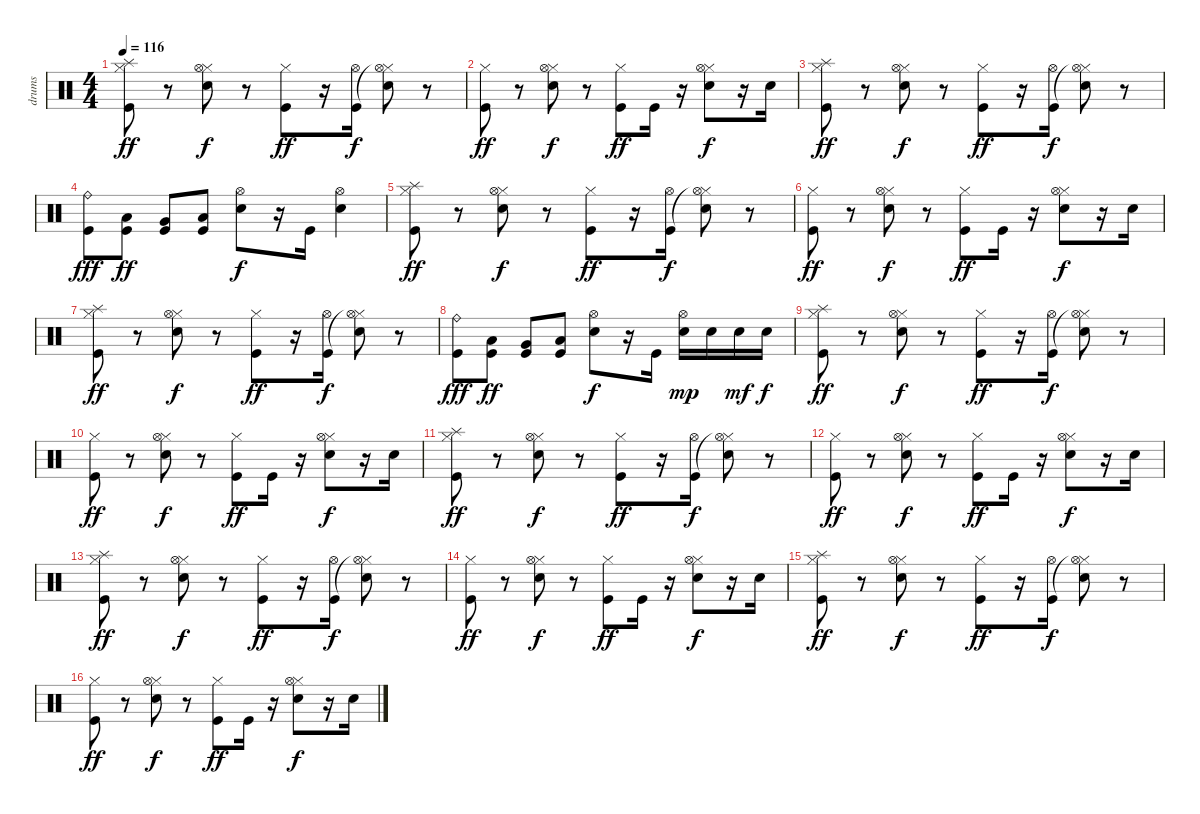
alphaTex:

\track ("drums" "drums") {instrument percussion}
\staff {score}
\articulation defaults
\ts (4 4)
\tempo 116
\clef neutral
\ks c
("Hi-Hat (closed)" "Splash (hit)" "Kick (hit)").8{dy ff} r.8 ("Hi-Hat (closed)" "Hi-Hat (open)" "Electric Snare (hit)").8{dy f} r.8 ("Hi-Hat (closed)" "Kick (hit)").8{dy ff} r.16 ("Hi-Hat (open)" "Kick (hit)").16{dy f} ("Hi-Hat (closed)" "Hi-Hat (open)"{t} "Electric Snare (hit)").8 r.8 |
("Hi-Hat (closed)" "Kick (hit)").8{dy ff} r.8 ("Hi-Hat (closed)" "Hi-Hat (open)" "Electric Snare (hit)").8{dy f} r.8 ("Hi-Hat (closed)" "Kick (hit)").8{dy ff} "Kick (hit)".16 r.16 ("Hi-Hat (closed)" "Hi-Hat (open)" "Electric Snare (hit)").8{dy f} r.16 "Electric Snare (hit)".16 |
("Hi-Hat (closed)" "Splash (hit)" "Kick (hit)").8{dy ff} r.8 ("Hi-Hat (closed)" "Hi-Hat (open)" "Electric Snare (hit)").8{dy f} r.8 ("Hi-Hat (closed)" "Kick (hit)").8{dy ff} r.16 ("Hi-Hat (open)" "Kick (hit)").16{dy f} ("Hi-Hat (closed)" "Hi-Hat (open)"{t} "Electric Snare (hit)").8 r.8 |
("Ride (bell)" "Kick (hit)").8{dy fff} ("Low Tom (hit)" "Kick (hit)").8{dy ff} ("Very Low Tom (hit)" "Kick (hit)").8 ("Low Floor Tom (hit)" "Kick (hit)").8 ("Hi-Hat (open)" "Electric Snare (hit)").8{dy f} r.16 "Kick (hit)".16 ("Hi-Hat (open)" "Electric Snare (hit)").4 |
("Hi-Hat (closed)" "Splash (hit)" "Kick (hit)").8{dy ff} r.8 ("Hi-Hat (closed)" "Hi-Hat (open)" "Electric Snare (hit)").8{dy f} r.8 ("Hi-Hat (closed)" "Kick (hit)").8{dy ff} r.16 ("Hi-Hat (open)" "Kick (hit)").16{dy f} ("Hi-Hat (closed)" "Hi-Hat (open)"{t} "Electric Snare (hit)").8 r.8 |
("Hi-Hat (closed)" "Kick (hit)").8{dy ff} r.8 ("Hi-Hat (closed)" "Hi-Hat (open)" "Electric Snare (hit)").8{dy f} r.8 ("Hi-Hat (closed)" "Kick (hit)").8{dy ff} "Kick (hit)".16 r.16 ("Hi-Hat (closed)" "Hi-Hat (open)" "Electric Snare (hit)").8{dy f} r.16 "Electric Snare (hit)".16 |
("Hi-Hat (closed)" "Splash (hit)" "Kick (hit)").8{dy ff} r.8 ("Hi-Hat (closed)" "Hi-Hat (open)" "Electric Snare (hit)").8{dy f} r.8 ("Hi-Hat (closed)" "Kick (hit)").8{dy ff} r.16 ("Hi-Hat (open)" "Kick (hit)").16{dy f} ("Hi-Hat (closed)" "Hi-Hat (open)"{t} "Electric Snare (hit)").8 r.8 |
("Ride (bell)" "Kick (hit)").8{dy fff} ("Low Tom (hit)" "Kick (hit)").8{dy ff} ("Very Low Tom (hit)" "Kick (hit)").8 ("Low Floor Tom (hit)" "Kick (hit)").8 ("Hi-Hat (open)" "Electric Snare (hit)").8{dy f} r.16 "Kick (hit)".16 ("Hi-Hat (open)" "Electric Snare (hit)").16{dy mp} "Electric Snare (hit)".16 "Electric Snare (hit)".16{dy mf} "Electric Snare (hit)".16{dy f} |
("Hi-Hat (closed)" "Splash (hit)" "Kick (hit)").8{dy ff} r.8 ("Hi-Hat (closed)" "Hi-Hat (open)" "Electric Snare (hit)").8{dy f} r.8 ("Hi-Hat (closed)" "Kick (hit)").8{dy ff} r.16 ("Hi-Hat (open)" "Kick (hit)").16{dy f} ("Hi-Hat (closed)" "Hi-Hat (open)"{t} "Electric Snare (hit)").8 r.8 |
("Hi-Hat (closed)" "Kick (hit)").8{dy ff} r.8 ("Hi-Hat (closed)" "Hi-Hat (open)" "Electric Snare (hit)").8{dy f} r.8 ("Hi-Hat (closed)" "Kick (hit)").8{dy ff} "Kick (hit)".16 r.16 ("Hi-Hat (closed)" "Hi-Hat (open)" "Electric Snare (hit)").8{dy f} r.16 "Electric Snare (hit)".16 |
("Hi-Hat (closed)" "Splash (hit)" "Kick (hit)").8{dy ff} r.8 ("Hi-Hat (closed)" "Hi-Hat (open)" "Electric Snare (hit)").8{dy f} r.8 ("Hi-Hat (closed)" "Kick (hit)").8{dy ff} r.16 ("Hi-Hat (open)" "Kick (hit)").16{dy f} ("Hi-Hat (closed)" "Hi-Hat (open)"{t} "Electric Snare (hit)").8 r.8 |
("Hi-Hat (closed)" "Kick (hit)").8{dy ff} r.8 ("Hi-Hat (closed)" "Hi-Hat (open)" "Electric Snare (hit)").8{dy f} r.8 ("Hi-Hat (closed)" "Kick (hit)").8{dy ff} "Kick (hit)".16 r.16 ("Hi-Hat (closed)" "Hi-Hat (open)" "Electric Snare (hit)").8{dy f} r.16 "Electric Snare (hit)".16 |
("Hi-Hat (closed)" "Splash (hit)" "Kick (hit)").8{dy ff} r.8 ("Hi-Hat (closed)" "Hi-Hat (open)" "Electric Snare (hit)").8{dy f} r.8 ("Hi-Hat (closed)" "Kick (hit)").8{dy ff} r.16 ("Hi-Hat (open)" "Kick (hit)").16{dy f} ("Hi-Hat (closed)" "Hi-Hat (open)"{t} "Electric Snare (hit)").8 r.8 |
("Hi-Hat (closed)" "Kick (hit)").8{dy ff} r.8 ("Hi-Hat (closed)" "Hi-Hat (open)" "Electric Snare (hit)").8{dy f} r.8 ("Hi-Hat (closed)" "Kick (hit)").8{dy ff} "Kick (hit)".16 r.16 ("Hi-Hat (closed)" "Hi-Hat (open)" "Electric Snare (hit)").8{dy f} r.16 "Electric Snare (hit)".16 |
("Hi-Hat (closed)" "Splash (hit)" "Kick (hit)").8{dy ff} r.8 ("Hi-Hat (closed)" "Hi-Hat (open)" "Electric Snare (hit)").8{dy f} r.8 ("Hi-Hat (closed)" "Kick (hit)").8{dy ff} r.16 ("Hi-Hat (open)" "Kick (hit)").16{dy f} ("Hi-Hat (closed)" "Hi-Hat (open)"{t} "Electric Snare (hit)").8 r.8 |
("Hi-Hat (closed)" "Kick (hit)").8{dy ff} r.8 ("Hi-Hat (closed)" "Hi-Hat (open)" "Electric Snare (hit)").8{dy f} r.8 ("Hi-Hat (closed)" "Kick (hit)").8{dy ff} "Kick (hit)".16 r.16 ("Hi-Hat (closed)" "Hi-Hat (open)" "Electric Snare (hit)").8{dy f} r.16 "Electric Snare (hit)".16
